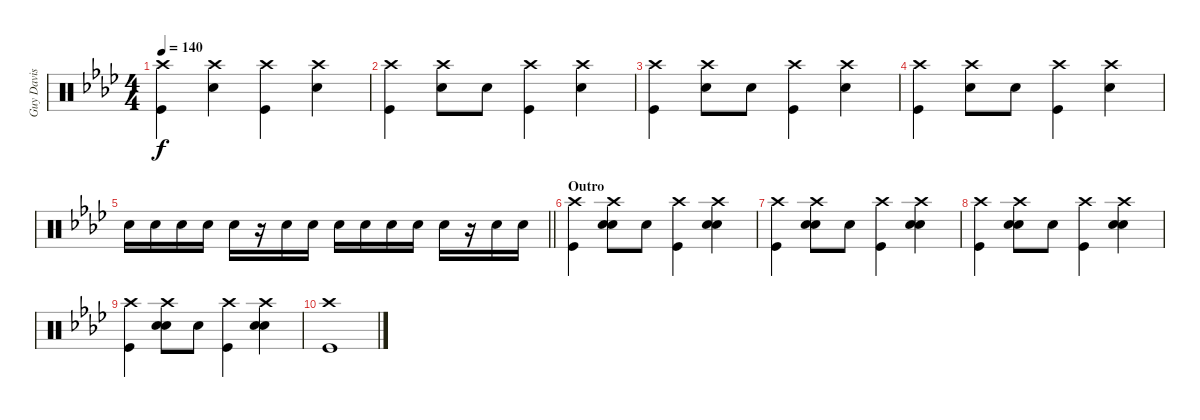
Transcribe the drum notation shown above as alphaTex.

\track ("Guy Davis" "Guy Davis") {instrument percussion}
\staff {score}
\articulation defaults
\ts (4 4)
\tempo 140
\clef neutral
\ks fminor
("Crash high (hit)" "Kick (hit)").4{dy f} ("Crash high (hit)" "Snare (hit) 2").4 ("Crash high (hit)" "Kick (hit)").4 ("Crash high (hit)" "Snare (hit) 2").4 |
("Crash high (hit)" "Kick (hit)").4 ("Crash high (hit)" "Snare (hit) 2").8 "Snare (hit) 2".8 ("Crash high (hit)" "Kick (hit)").4 ("Crash high (hit)" "Snare (hit) 2").4 |
("Crash high (hit)" "Kick (hit)").4 ("Crash high (hit)" "Snare (hit) 2").8 "Snare (hit) 2".8 ("Crash high (hit)" "Kick (hit)").4 ("Crash high (hit)" "Snare (hit) 2").4 |
("Crash high (hit)" "Kick (hit)").4 ("Crash high (hit)" "Snare (hit) 2").8 "Snare (hit) 2".8 ("Crash high (hit)" "Kick (hit)").4 ("Crash high (hit)" "Snare (hit) 2").4 |
\barLineRight lightlight "Snare (hit) 2".16 "Snare (hit) 2".16 "Snare (hit) 2".16 "Snare (hit) 2".16 "Snare (hit) 2".16
r.16 "Snare (hit) 2".16 "Snare (hit) 2".16 "Snare (hit) 2".16 "Snare (hit) 2".16 "Snare (hit) 2".16 "Snare (hit) 2".16 "Snare (hit) 2".16 r.16 "Snare (hit) 2".16 "Snare (hit) 2".16 |
\section ("" "Outro")
("Crash high (hit)" "Kick (hit)").4 ("Hand Clap (hit)" "Crash high (hit)" "Snare (hit) 2").8 "Hand Clap (hit)".8 ("Crash high (hit)" "Kick (hit)").4 ("Hand Clap (hit)" "Crash high (hit)" "Snare (hit) 2").4 |
("Crash high (hit)" "Kick (hit)").4 ("Hand Clap (hit)" "Crash high (hit)" "Snare (hit) 2").8 "Hand Clap (hit)".8 ("Crash high (hit)" "Kick (hit)").4 ("Hand Clap (hit)" "Crash high (hit)" "Snare (hit) 2").4 |
("Crash high (hit)" "Kick (hit)").4 ("Hand Clap (hit)" "Crash high (hit)" "Snare (hit) 2").8 "Hand Clap (hit)".8 ("Crash high (hit)" "Kick (hit)").4 ("Hand Clap (hit)" "Crash high (hit)" "Snare (hit) 2").4 |
("Crash high (hit)" "Kick (hit)").4 ("Hand Clap (hit)" "Crash high (hit)" "Snare (hit) 2").8 "Hand Clap (hit)".8 ("Crash high (hit)" "Kick (hit)").4 ("Hand Clap (hit)" "Crash high (hit)" "Snare (hit) 2").4 |
("Crash high (hit)" "Kick (hit)").1
